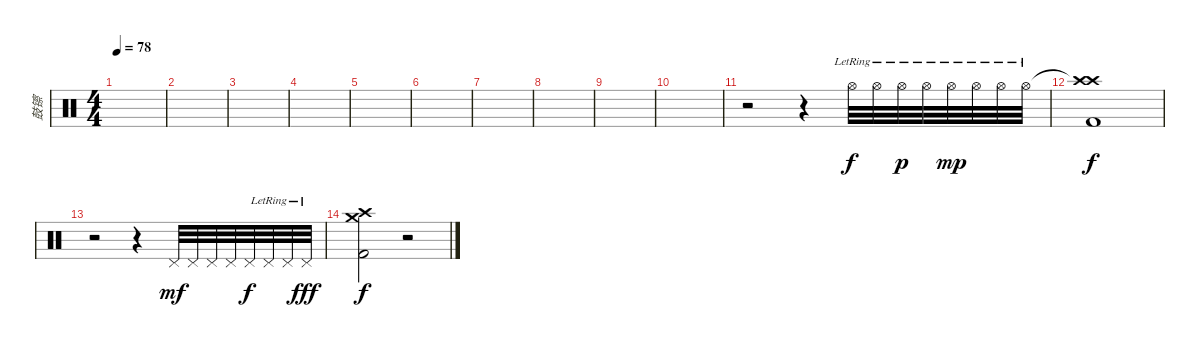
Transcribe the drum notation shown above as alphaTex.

\track ("鼓镲" "鼓镲") {instrument percussion}
\staff {score}
\articulation defaults
\ts (4 4)
\tempo 78
\clef neutral
\ks c
|
|
|
|
|
|
|
|
|
|
r.2 r.4 "Hi-Hat (open)"{lr}.32 "Hi-Hat (open)"{lr}.32 "Hi-Hat (open)"{lr}.32{dy p} "Hi-Hat (open)"{lr}.32 "Hi-Hat (open)"{lr}.32{dy mp} "Hi-Hat (open)"{lr}.32 "Hi-Hat (open)"{lr}.32 "Hi-Hat (open)"{lr}.32 |
("Crash high (hit)"{t} "Kick (hit) 2" "Crash high (hit)").1{dy f} |
r.2 r.4 "Pedal Hi-Hat (hit)".32{dy mf} "Pedal Hi-Hat (hit)".32 "Pedal Hi-Hat (hit)".32 "Pedal Hi-Hat (hit)".32 "Pedal Hi-Hat (hit)".32{dy f} "Pedal Hi-Hat (hit)"{lr}.32 "Pedal Hi-Hat (hit)"{lr}.32 "Pedal Hi-Hat (hit)"{lr}.32{dy fff} |
("Crash medium (hit)" "Kick (hit) 2" "Crash high (hit)").2{dy f} r.2
